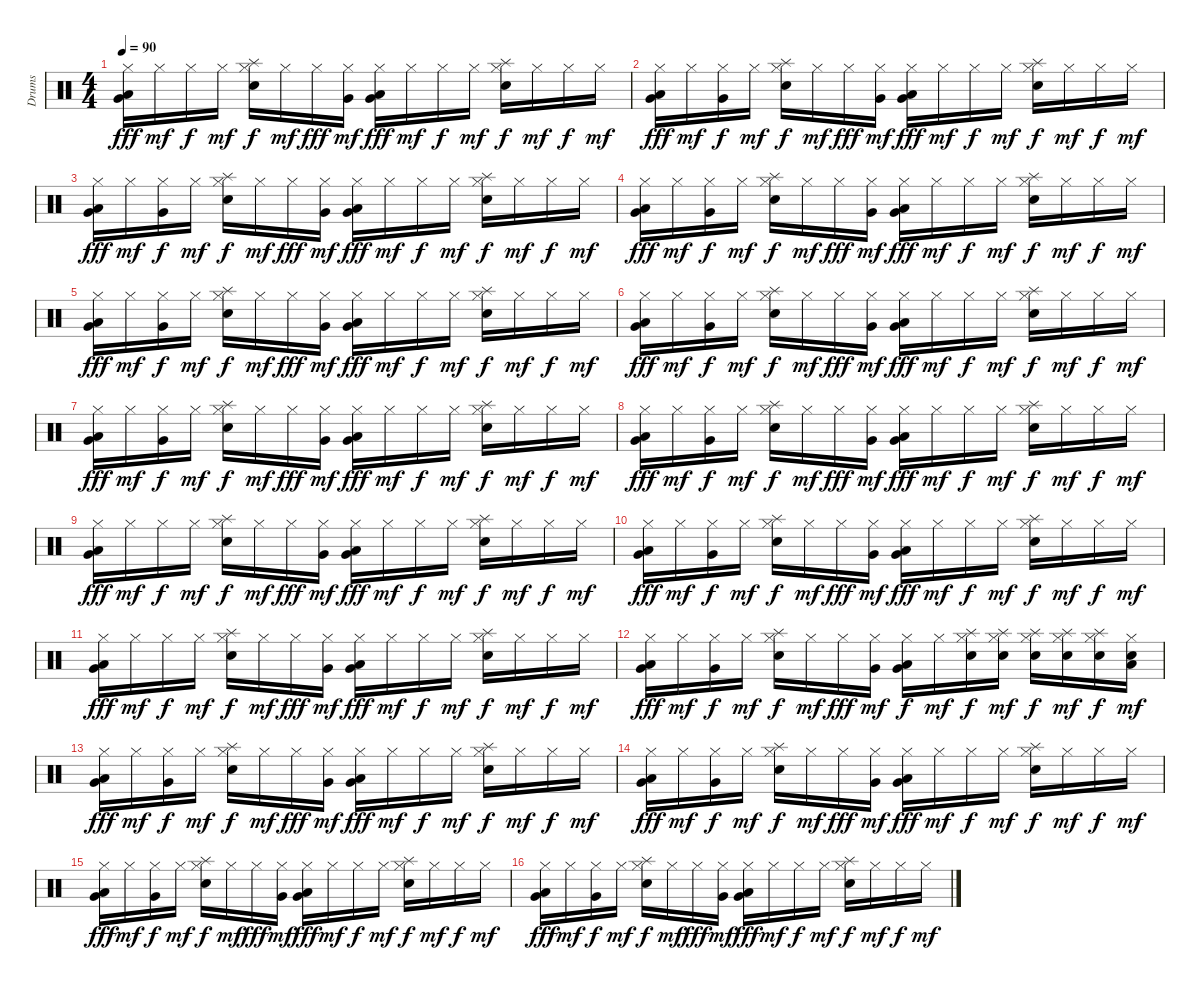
\track ("Drums" "Drums") {instrument percussion}
\staff {score}
\articulation defaults
\ts (4 4)
\tempo 90
\clef neutral
\ks c
("Very Low Tom (hit)" "Low Floor Tom (hit)" "Hi-Hat (closed)").16{dy fff} "Hi-Hat (closed)".16{dy mf} "Hi-Hat (closed)".16{dy f} "Hi-Hat (closed)".16{dy mf} ("Electric Snare (hit)" "Splash (hit)" "Hi-Hat (closed)").16{dy f} "Hi-Hat (closed)".16{dy mf} "Hi-Hat (closed)".16{dy fff} ("Very Low Tom (hit)" "Hi-Hat (closed)").16{dy mf} ("Very Low Tom (hit)" "Low Floor Tom (hit)" "Hi-Hat (closed)").16{dy fff} "Hi-Hat (closed)".16{dy mf} "Hi-Hat (closed)".16{dy f} "Hi-Hat (closed)".16{dy mf} ("Electric Snare (hit)" "Splash (hit)" "Hi-Hat (closed)").16{dy f} "Hi-Hat (closed)".16{dy mf} "Hi-Hat (closed)".16{dy f} "Hi-Hat (closed)".16{dy mf} |
("Very Low Tom (hit)" "Low Floor Tom (hit)" "Hi-Hat (closed)").16{dy fff} "Hi-Hat (closed)".16{dy mf} ("Very Low Tom (hit)" "Hi-Hat (closed)").16{dy f} "Hi-Hat (closed)".16{dy mf} ("Electric Snare (hit)" "Splash (hit)" "Hi-Hat (closed)").16{dy f} "Hi-Hat (closed)".16{dy mf} "Hi-Hat (closed)".16{dy fff} ("Very Low Tom (hit)" "Hi-Hat (closed)").16{dy mf} ("Very Low Tom (hit)" "Low Floor Tom (hit)" "Hi-Hat (closed)").16{dy fff} "Hi-Hat (closed)".16{dy mf} "Hi-Hat (closed)".16{dy f} "Hi-Hat (closed)".16{dy mf} ("Electric Snare (hit)" "Splash (hit)" "Hi-Hat (closed)").16{dy f} "Hi-Hat (closed)".16{dy mf} "Hi-Hat (closed)".16{dy f} "Hi-Hat (closed)".16{dy mf} |
("Very Low Tom (hit)" "Low Floor Tom (hit)" "Hi-Hat (closed)").16{dy fff} "Hi-Hat (closed)".16{dy mf} ("Very Low Tom (hit)" "Hi-Hat (closed)").16{dy f} "Hi-Hat (closed)".16{dy mf} ("Electric Snare (hit)" "Splash (hit)" "Hi-Hat (closed)").16{dy f} "Hi-Hat (closed)".16{dy mf} "Hi-Hat (closed)".16{dy fff} ("Very Low Tom (hit)" "Hi-Hat (closed)").16{dy mf} ("Very Low Tom (hit)" "Low Floor Tom (hit)" "Hi-Hat (closed)").16{dy fff} "Hi-Hat (closed)".16{dy mf} "Hi-Hat (closed)".16{dy f} "Hi-Hat (closed)".16{dy mf} ("Electric Snare (hit)" "Splash (hit)" "Hi-Hat (closed)").16{dy f} "Hi-Hat (closed)".16{dy mf} "Hi-Hat (closed)".16{dy f} "Hi-Hat (closed)".16{dy mf} |
("Very Low Tom (hit)" "Low Floor Tom (hit)" "Hi-Hat (closed)").16{dy fff} "Hi-Hat (closed)".16{dy mf} ("Very Low Tom (hit)" "Hi-Hat (closed)").16{dy f} "Hi-Hat (closed)".16{dy mf} ("Electric Snare (hit)" "Splash (hit)" "Hi-Hat (closed)").16{dy f} "Hi-Hat (closed)".16{dy mf} "Hi-Hat (closed)".16{dy fff} ("Very Low Tom (hit)" "Hi-Hat (closed)").16{dy mf} ("Very Low Tom (hit)" "Low Floor Tom (hit)" "Hi-Hat (closed)").16{dy fff} "Hi-Hat (closed)".16{dy mf} "Hi-Hat (closed)".16{dy f} "Hi-Hat (closed)".16{dy mf} ("Electric Snare (hit)" "Splash (hit)" "Hi-Hat (closed)").16{dy f} "Hi-Hat (closed)".16{dy mf} "Hi-Hat (closed)".16{dy f} "Hi-Hat (closed)".16{dy mf} |
("Very Low Tom (hit)" "Low Floor Tom (hit)" "Hi-Hat (closed)").16{dy fff} "Hi-Hat (closed)".16{dy mf} ("Very Low Tom (hit)" "Hi-Hat (closed)").16{dy f} "Hi-Hat (closed)".16{dy mf} ("Electric Snare (hit)" "Splash (hit)" "Hi-Hat (closed)").16{dy f} "Hi-Hat (closed)".16{dy mf} "Hi-Hat (closed)".16{dy fff} ("Very Low Tom (hit)" "Hi-Hat (closed)").16{dy mf} ("Very Low Tom (hit)" "Low Floor Tom (hit)" "Hi-Hat (closed)").16{dy fff} "Hi-Hat (closed)".16{dy mf} "Hi-Hat (closed)".16{dy f} "Hi-Hat (closed)".16{dy mf} ("Electric Snare (hit)" "Splash (hit)" "Hi-Hat (closed)").16{dy f} "Hi-Hat (closed)".16{dy mf} "Hi-Hat (closed)".16{dy f} "Hi-Hat (closed)".16{dy mf} |
("Very Low Tom (hit)" "Low Floor Tom (hit)" "Hi-Hat (closed)").16{dy fff} "Hi-Hat (closed)".16{dy mf} ("Very Low Tom (hit)" "Hi-Hat (closed)").16{dy f} "Hi-Hat (closed)".16{dy mf} ("Electric Snare (hit)" "Splash (hit)" "Hi-Hat (closed)").16{dy f} "Hi-Hat (closed)".16{dy mf} "Hi-Hat (closed)".16{dy fff} ("Very Low Tom (hit)" "Hi-Hat (closed)").16{dy mf} ("Very Low Tom (hit)" "Low Floor Tom (hit)" "Hi-Hat (closed)").16{dy fff} "Hi-Hat (closed)".16{dy mf} "Hi-Hat (closed)".16{dy f} "Hi-Hat (closed)".16{dy mf} ("Electric Snare (hit)" "Splash (hit)" "Hi-Hat (closed)").16{dy f} "Hi-Hat (closed)".16{dy mf} "Hi-Hat (closed)".16{dy f} "Hi-Hat (closed)".16{dy mf} |
("Very Low Tom (hit)" "Low Floor Tom (hit)" "Hi-Hat (closed)").16{dy fff} "Hi-Hat (closed)".16{dy mf} ("Very Low Tom (hit)" "Hi-Hat (closed)").16{dy f} "Hi-Hat (closed)".16{dy mf} ("Electric Snare (hit)" "Splash (hit)" "Hi-Hat (closed)").16{dy f} "Hi-Hat (closed)".16{dy mf} "Hi-Hat (closed)".16{dy fff} ("Very Low Tom (hit)" "Hi-Hat (closed)").16{dy mf} ("Very Low Tom (hit)" "Low Floor Tom (hit)" "Hi-Hat (closed)").16{dy fff} "Hi-Hat (closed)".16{dy mf} "Hi-Hat (closed)".16{dy f} "Hi-Hat (closed)".16{dy mf} ("Electric Snare (hit)" "Splash (hit)" "Hi-Hat (closed)").16{dy f} "Hi-Hat (closed)".16{dy mf} "Hi-Hat (closed)".16{dy f} "Hi-Hat (closed)".16{dy mf} |
("Very Low Tom (hit)" "Low Floor Tom (hit)" "Hi-Hat (closed)").16{dy fff} "Hi-Hat (closed)".16{dy mf} ("Very Low Tom (hit)" "Hi-Hat (closed)").16{dy f} "Hi-Hat (closed)".16{dy mf} ("Electric Snare (hit)" "Splash (hit)" "Hi-Hat (closed)").16{dy f} "Hi-Hat (closed)".16{dy mf} "Hi-Hat (closed)".16{dy fff} ("Very Low Tom (hit)" "Hi-Hat (closed)").16{dy mf} ("Very Low Tom (hit)" "Low Floor Tom (hit)" "Hi-Hat (closed)").16{dy fff} "Hi-Hat (closed)".16{dy mf} "Hi-Hat (closed)".16{dy f} "Hi-Hat (closed)".16{dy mf} ("Electric Snare (hit)" "Splash (hit)" "Hi-Hat (closed)").16{dy f} "Hi-Hat (closed)".16{dy mf} "Hi-Hat (closed)".16{dy f} "Hi-Hat (closed)".16{dy mf} |
("Very Low Tom (hit)" "Low Floor Tom (hit)" "Hi-Hat (closed)").16{dy fff} "Hi-Hat (closed)".16{dy mf} "Hi-Hat (closed)".16{dy f} "Hi-Hat (closed)".16{dy mf} ("Electric Snare (hit)" "Splash (hit)" "Hi-Hat (closed)").16{dy f} "Hi-Hat (closed)".16{dy mf} "Hi-Hat (closed)".16{dy fff} ("Very Low Tom (hit)" "Hi-Hat (closed)").16{dy mf} ("Very Low Tom (hit)" "Low Floor Tom (hit)" "Hi-Hat (closed)").16{dy fff} "Hi-Hat (closed)".16{dy mf} "Hi-Hat (closed)".16{dy f} "Hi-Hat (closed)".16{dy mf} ("Electric Snare (hit)" "Splash (hit)" "Hi-Hat (closed)").16{dy f} "Hi-Hat (closed)".16{dy mf} "Hi-Hat (closed)".16{dy f} "Hi-Hat (closed)".16{dy mf} |
("Very Low Tom (hit)" "Low Floor Tom (hit)" "Hi-Hat (closed)").16{dy fff} "Hi-Hat (closed)".16{dy mf} ("Very Low Tom (hit)" "Hi-Hat (closed)").16{dy f} "Hi-Hat (closed)".16{dy mf} ("Electric Snare (hit)" "Splash (hit)" "Hi-Hat (closed)").16{dy f} "Hi-Hat (closed)".16{dy mf} "Hi-Hat (closed)".16{dy fff} ("Very Low Tom (hit)" "Hi-Hat (closed)").16{dy mf} ("Very Low Tom (hit)" "Low Floor Tom (hit)" "Hi-Hat (closed)").16{dy fff} "Hi-Hat (closed)".16{dy mf} "Hi-Hat (closed)".16{dy f} "Hi-Hat (closed)".16{dy mf} ("Electric Snare (hit)" "Splash (hit)" "Hi-Hat (closed)").16{dy f} "Hi-Hat (closed)".16{dy mf} "Hi-Hat (closed)".16{dy f} "Hi-Hat (closed)".16{dy mf} |
("Very Low Tom (hit)" "Low Floor Tom (hit)" "Hi-Hat (closed)").16{dy fff} "Hi-Hat (closed)".16{dy mf} "Hi-Hat (closed)".16{dy f} "Hi-Hat (closed)".16{dy mf} ("Electric Snare (hit)" "Splash (hit)" "Hi-Hat (closed)").16{dy f} "Hi-Hat (closed)".16{dy mf} "Hi-Hat (closed)".16{dy fff} ("Very Low Tom (hit)" "Hi-Hat (closed)").16{dy mf} ("Very Low Tom (hit)" "Low Floor Tom (hit)" "Hi-Hat (closed)").16{dy fff} "Hi-Hat (closed)".16{dy mf} "Hi-Hat (closed)".16{dy f} "Hi-Hat (closed)".16{dy mf} ("Electric Snare (hit)" "Splash (hit)" "Hi-Hat (closed)").16{dy f} "Hi-Hat (closed)".16{dy mf} "Hi-Hat (closed)".16{dy f} "Hi-Hat (closed)".16{dy mf} |
("Very Low Tom (hit)" "Low Floor Tom (hit)" "Hi-Hat (closed)").16{dy fff} "Hi-Hat (closed)".16{dy mf} ("Very Low Tom (hit)" "Hi-Hat (closed)").16{dy f} "Hi-Hat (closed)".16{dy mf} ("Electric Snare (hit)" "Splash (hit)" "Hi-Hat (closed)").16{dy f} "Hi-Hat (closed)".16{dy mf} "Hi-Hat (closed)".16{dy fff} ("Very Low Tom (hit)" "Hi-Hat (closed)").16{dy mf} ("Very Low Tom (hit)" "Low Floor Tom (hit)" "Hi-Hat (closed)").16{dy f} "Hi-Hat (closed)".16{dy mf} ("Electric Snare (hit)" "Splash (hit)" "Hi-Hat (closed)").16{dy f} ("Electric Snare (hit)" "Splash (hit)" "Hi-Hat (closed)").16{dy mf} ("Electric Snare (hit)" "Splash (hit)" "Hi-Hat (closed)").16{dy f} ("Electric Snare (hit)" "Splash (hit)" "Hi-Hat (closed)").16{dy mf} ("Electric Snare (hit)" "Splash (hit)" "Hi-Hat (closed)").16{dy f} ("Electric Snare (hit)" "Low Tom (hit)" "Hi-Hat (closed)").16{dy mf} |
("Very Low Tom (hit)" "Low Floor Tom (hit)" "Hi-Hat (closed)").16{dy fff} "Hi-Hat (closed)".16{dy mf} ("Very Low Tom (hit)" "Hi-Hat (closed)").16{dy f} "Hi-Hat (closed)".16{dy mf} ("Electric Snare (hit)" "Splash (hit)" "Hi-Hat (closed)").16{dy f} "Hi-Hat (closed)".16{dy mf} "Hi-Hat (closed)".16{dy fff} ("Very Low Tom (hit)" "Hi-Hat (closed)").16{dy mf} ("Very Low Tom (hit)" "Low Floor Tom (hit)" "Hi-Hat (closed)").16{dy fff} "Hi-Hat (closed)".16{dy mf} "Hi-Hat (closed)".16{dy f} "Hi-Hat (closed)".16{dy mf} ("Electric Snare (hit)" "Splash (hit)" "Hi-Hat (closed)").16{dy f} "Hi-Hat (closed)".16{dy mf} "Hi-Hat (closed)".16{dy f} "Hi-Hat (closed)".16{dy mf} |
("Very Low Tom (hit)" "Low Floor Tom (hit)" "Hi-Hat (closed)").16{dy fff} "Hi-Hat (closed)".16{dy mf} ("Very Low Tom (hit)" "Hi-Hat (closed)").16{dy f} "Hi-Hat (closed)".16{dy mf} ("Electric Snare (hit)" "Splash (hit)" "Hi-Hat (closed)").16{dy f} "Hi-Hat (closed)".16{dy mf} "Hi-Hat (closed)".16{dy fff} ("Very Low Tom (hit)" "Hi-Hat (closed)").16{dy mf} ("Very Low Tom (hit)" "Low Floor Tom (hit)" "Hi-Hat (closed)").16{dy fff} "Hi-Hat (closed)".16{dy mf} "Hi-Hat (closed)".16{dy f} "Hi-Hat (closed)".16{dy mf} ("Electric Snare (hit)" "Splash (hit)" "Hi-Hat (closed)").16{dy f} "Hi-Hat (closed)".16{dy mf} "Hi-Hat (closed)".16{dy f} "Hi-Hat (closed)".16{dy mf} |
("Very Low Tom (hit)" "Low Floor Tom (hit)" "Hi-Hat (closed)").16{dy fff} "Hi-Hat (closed)".16{dy mf} ("Very Low Tom (hit)" "Hi-Hat (closed)").16{dy f} "Hi-Hat (closed)".16{dy mf} ("Electric Snare (hit)" "Splash (hit)" "Hi-Hat (closed)").16{dy f} "Hi-Hat (closed)".16{dy mf} "Hi-Hat (closed)".16{dy fff} ("Very Low Tom (hit)" "Hi-Hat (closed)").16{dy mf} ("Very Low Tom (hit)" "Low Floor Tom (hit)" "Hi-Hat (closed)").16{dy fff} "Hi-Hat (closed)".16{dy mf} "Hi-Hat (closed)".16{dy f} "Hi-Hat (closed)".16{dy mf} ("Electric Snare (hit)" "Splash (hit)" "Hi-Hat (closed)").16{dy f} "Hi-Hat (closed)".16{dy mf} "Hi-Hat (closed)".16{dy f} "Hi-Hat (closed)".16{dy mf} |
("Very Low Tom (hit)" "Low Floor Tom (hit)" "Hi-Hat (closed)").16{dy fff} "Hi-Hat (closed)".16{dy mf} ("Very Low Tom (hit)" "Hi-Hat (closed)").16{dy f} "Hi-Hat (closed)".16{dy mf} ("Electric Snare (hit)" "Splash (hit)" "Hi-Hat (closed)").16{dy f} "Hi-Hat (closed)".16{dy mf} "Hi-Hat (closed)".16{dy fff} ("Very Low Tom (hit)" "Hi-Hat (closed)").16{dy mf} ("Very Low Tom (hit)" "Low Floor Tom (hit)" "Hi-Hat (closed)").16{dy fff} "Hi-Hat (closed)".16{dy mf} "Hi-Hat (closed)".16{dy f} "Hi-Hat (closed)".16{dy mf} ("Electric Snare (hit)" "Splash (hit)" "Hi-Hat (closed)").16{dy f} "Hi-Hat (closed)".16{dy mf} "Hi-Hat (closed)".16{dy f} "Hi-Hat (closed)".16{dy mf}
